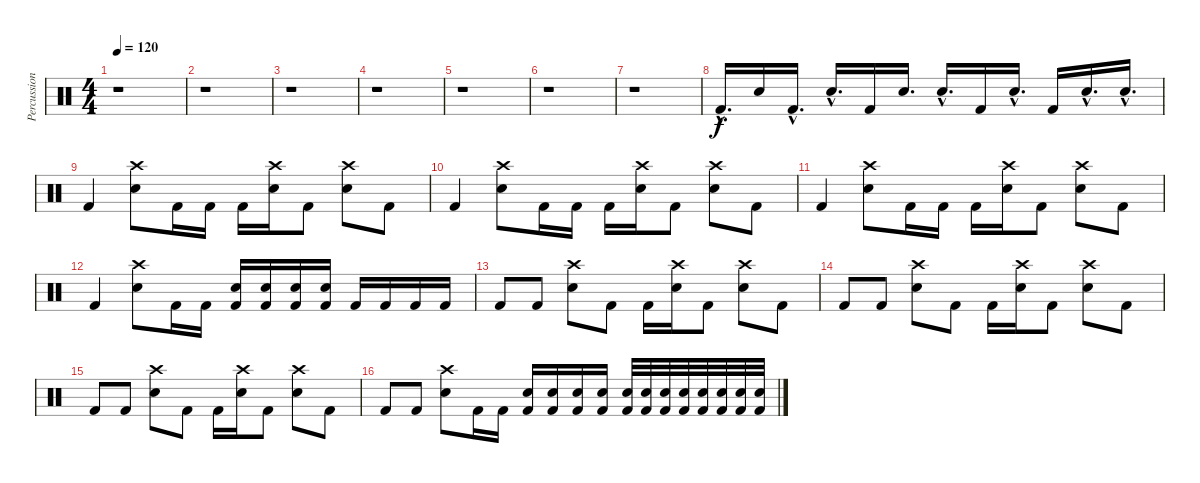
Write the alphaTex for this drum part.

\track ("Percussion" "Percussion") {instrument percussion}
\staff {score}
\articulation defaults
\ts (4 4)
\tempo 120
\clef neutral
\ks c
r.1{dy f} |
r.1 |
r.1 |
r.1 |
r.1 |
r.1 |
r.1 |
"Kick (hit) 2"{hac}.16{d} "Snare (hit) 2".16 "Kick (hit) 2"{hac}.16{d} "Snare (hit) 2"{hac}.16{d} "Kick (hit) 2".16 "Snare (hit) 2".16{d} "Snare (hit) 2"{hac}.16{d} "Kick (hit) 2".16 "Snare (hit) 2"{hac}.16{d} "Kick (hit) 2".16 "Snare (hit) 2"{hac}.16{d} "Snare (hit) 2"{hac}.16{d} |
"Kick (hit) 2".4 ("Crash high (hit)" "Snare (hit) 2").8 "Kick (hit) 2".16 "Kick (hit) 2".16 "Kick (hit) 2".16 ("Crash high (hit)" "Snare (hit) 2").16 "Kick (hit) 2".8 ("Crash high (hit)" "Snare (hit) 2").8 "Kick (hit) 2".8 |
"Kick (hit) 2".4 ("Crash high (hit)" "Snare (hit) 2").8 "Kick (hit) 2".16 "Kick (hit) 2".16 "Kick (hit) 2".16 ("Crash high (hit)" "Snare (hit) 2").16 "Kick (hit) 2".8 ("Crash high (hit)" "Snare (hit) 2").8 "Kick (hit) 2".8 |
"Kick (hit) 2".4 ("Crash high (hit)" "Snare (hit) 2").8 "Kick (hit) 2".16 "Kick (hit) 2".16 "Kick (hit) 2".16 ("Crash high (hit)" "Snare (hit) 2").16 "Kick (hit) 2".8 ("Crash high (hit)" "Snare (hit) 2").8 "Kick (hit) 2".8 |
"Kick (hit) 2".4 ("Crash high (hit)" "Snare (hit) 2").8 "Kick (hit) 2".16 "Kick (hit) 2".16 ("Kick (hit) 2" "Snare (hit) 2").16 ("Kick (hit) 2" "Snare (hit) 2").16 ("Kick (hit) 2" "Snare (hit) 2").16 ("Kick (hit) 2" "Snare (hit) 2").16 "Kick (hit) 2".16 "Kick (hit) 2".16 "Kick (hit) 2".16 "Kick (hit) 2".16 |
"Kick (hit) 2".8 "Kick (hit) 2".8 ("Crash high (hit)" "Snare (hit) 2").8 "Kick (hit) 2".8 "Kick (hit) 2".16 ("Crash high (hit)" "Snare (hit) 2").16 "Kick (hit) 2".8 ("Crash high (hit)" "Snare (hit) 2").8 "Kick (hit) 2".8 |
"Kick (hit) 2".8 "Kick (hit) 2".8 ("Crash high (hit)" "Snare (hit) 2").8 "Kick (hit) 2".8 "Kick (hit) 2".16 ("Crash high (hit)" "Snare (hit) 2").16 "Kick (hit) 2".8 ("Crash high (hit)" "Snare (hit) 2").8 "Kick (hit) 2".8 |
"Kick (hit) 2".8 "Kick (hit) 2".8 ("Crash high (hit)" "Snare (hit) 2").8 "Kick (hit) 2".8 "Kick (hit) 2".16 ("Crash high (hit)" "Snare (hit) 2").16 "Kick (hit) 2".8 ("Crash high (hit)" "Snare (hit) 2").8 "Kick (hit) 2".8 |
"Kick (hit) 2".8 "Kick (hit) 2".8 ("Crash high (hit)" "Snare (hit) 2").8 "Kick (hit) 2".16 "Kick (hit) 2".16 ("Kick (hit) 2" "Snare (hit) 2").16 ("Kick (hit) 2" "Snare (hit) 2").16 ("Kick (hit) 2" "Snare (hit) 2").16 ("Kick (hit) 2" "Snare (hit) 2").16 ("Snare (hit) 2" "Kick (hit) 2").32 ("Snare (hit) 2" "Kick (hit) 2").32 ("Snare (hit) 2" "Kick (hit) 2").32 ("Snare (hit) 2" "Kick (hit) 2").32 ("Snare (hit) 2" "Kick (hit) 2").32 ("Snare (hit) 2" "Kick (hit) 2").32 ("Snare (hit) 2" "Kick (hit) 2").32 ("Snare (hit) 2" "Kick (hit) 2").32
